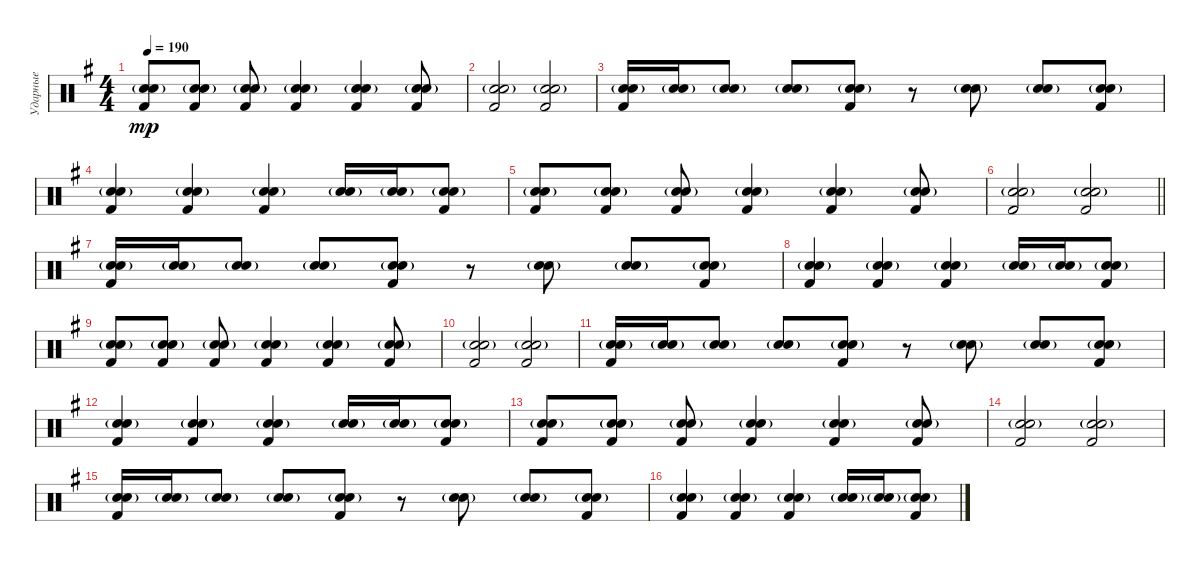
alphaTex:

\track ("Ударные" "Ударные") {instrument percussion}
\staff {score}
\articulation defaults
\ts (4 4)
\tempo 190
\clef neutral
\ks g
("Kick (hit) 2" "Snare (hit) 2"{g} "Electric Snare (hit)").8{dy mp} ("Kick (hit) 2" "Snare (hit) 2"{g} "Electric Snare (hit)").8 ("Kick (hit) 2" "Snare (hit) 2"{g} "Electric Snare (hit)").8 ("Kick (hit) 2" "Snare (hit) 2"{g} "Electric Snare (hit)").4 ("Kick (hit) 2" "Snare (hit) 2"{g} "Electric Snare (hit)").4 ("Kick (hit) 2" "Snare (hit) 2"{g} "Electric Snare (hit)").8 |
("Kick (hit) 2" "Snare (hit) 2"{g} "Electric Snare (hit)").2 ("Kick (hit) 2" "Snare (hit) 2"{g} "Electric Snare (hit)").2 |
("Kick (hit) 2" "Snare (hit) 2"{g} "Electric Snare (hit)").16 ("Snare (hit) 2"{g} "Electric Snare (hit)"{g}).16 ("Snare (hit) 2"{g} "Electric Snare (hit)"{g}).8 ("Snare (hit) 2"{g} "Electric Snare (hit)").8 ("Kick (hit) 2" "Snare (hit) 2"{g} "Electric Snare (hit)").8 r.8 ("Snare (hit) 2"{g} "Electric Snare (hit)").8 ("Snare (hit) 2"{g} "Electric Snare (hit)"{g}).8 ("Kick (hit) 2" "Snare (hit) 2"{g} "Electric Snare (hit)").8 |
("Kick (hit) 2" "Snare (hit) 2"{g} "Electric Snare (hit)").4 ("Kick (hit) 2" "Snare (hit) 2"{g} "Electric Snare (hit)").4 ("Kick (hit) 2" "Snare (hit) 2"{g} "Electric Snare (hit)").4 ("Snare (hit) 2"{g} "Electric Snare (hit)"{g}).16 ("Snare (hit) 2"{g} "Electric Snare (hit)"{g}).16 ("Kick (hit) 2" "Snare (hit) 2"{g} "Electric Snare (hit)").8 |
("Kick (hit) 2" "Snare (hit) 2"{g} "Electric Snare (hit)").8 ("Kick (hit) 2" "Snare (hit) 2"{g} "Electric Snare (hit)").8 ("Kick (hit) 2" "Snare (hit) 2"{g} "Electric Snare (hit)").8 ("Kick (hit) 2" "Snare (hit) 2"{g} "Electric Snare (hit)").4 ("Kick (hit) 2" "Snare (hit) 2"{g} "Electric Snare (hit)").4 ("Kick (hit) 2" "Snare (hit) 2"{g} "Electric Snare (hit)").8 |
\barLineRight lightlight
("Kick (hit) 2" "Snare (hit) 2"{g} "Electric Snare (hit)").2 ("Kick (hit) 2" "Snare (hit) 2"{g} "Electric Snare (hit)").2 |
("Kick (hit) 2" "Snare (hit) 2"{g} "Electric Snare (hit)").16 ("Snare (hit) 2"{g} "Electric Snare (hit)"{g}).16 ("Snare (hit) 2"{g} "Electric Snare (hit)"{g}).8 ("Snare (hit) 2"{g} "Electric Snare (hit)").8 ("Kick (hit) 2" "Snare (hit) 2"{g} "Electric Snare (hit)").8 r.8 ("Snare (hit) 2"{g} "Electric Snare (hit)").8 ("Snare (hit) 2"{g} "Electric Snare (hit)"{g}).8 ("Kick (hit) 2" "Snare (hit) 2"{g} "Electric Snare (hit)").8 |
("Kick (hit) 2" "Snare (hit) 2"{g} "Electric Snare (hit)").4 ("Kick (hit) 2" "Snare (hit) 2"{g} "Electric Snare (hit)").4 ("Kick (hit) 2" "Snare (hit) 2"{g} "Electric Snare (hit)").4 ("Snare (hit) 2"{g} "Electric Snare (hit)"{g}).16 ("Snare (hit) 2"{g} "Electric Snare (hit)"{g}).16 ("Kick (hit) 2" "Snare (hit) 2"{g} "Electric Snare (hit)").8 |
("Kick (hit) 2" "Snare (hit) 2"{g} "Electric Snare (hit)").8 ("Kick (hit) 2" "Snare (hit) 2"{g} "Electric Snare (hit)").8 ("Kick (hit) 2" "Snare (hit) 2"{g} "Electric Snare (hit)").8 ("Kick (hit) 2" "Snare (hit) 2"{g} "Electric Snare (hit)").4 ("Kick (hit) 2" "Snare (hit) 2"{g} "Electric Snare (hit)").4 ("Kick (hit) 2" "Snare (hit) 2"{g} "Electric Snare (hit)").8 |
("Kick (hit) 2" "Snare (hit) 2"{g} "Electric Snare (hit)").2 ("Kick (hit) 2" "Snare (hit) 2"{g} "Electric Snare (hit)").2 |
("Kick (hit) 2" "Snare (hit) 2"{g} "Electric Snare (hit)").16 ("Snare (hit) 2"{g} "Electric Snare (hit)"{g}).16 ("Snare (hit) 2"{g} "Electric Snare (hit)"{g}).8 ("Snare (hit) 2"{g} "Electric Snare (hit)").8 ("Kick (hit) 2" "Snare (hit) 2"{g} "Electric Snare (hit)").8 r.8 ("Snare (hit) 2"{g} "Electric Snare (hit)").8 ("Snare (hit) 2"{g} "Electric Snare (hit)"{g}).8 ("Kick (hit) 2" "Snare (hit) 2"{g} "Electric Snare (hit)").8 |
("Kick (hit) 2" "Snare (hit) 2"{g} "Electric Snare (hit)").4 ("Kick (hit) 2" "Snare (hit) 2"{g} "Electric Snare (hit)").4 ("Kick (hit) 2" "Snare (hit) 2"{g} "Electric Snare (hit)").4 ("Snare (hit) 2"{g} "Electric Snare (hit)"{g}).16 ("Snare (hit) 2"{g} "Electric Snare (hit)"{g}).16 ("Kick (hit) 2" "Snare (hit) 2"{g} "Electric Snare (hit)").8 |
("Kick (hit) 2" "Snare (hit) 2"{g} "Electric Snare (hit)").8 ("Kick (hit) 2" "Snare (hit) 2"{g} "Electric Snare (hit)").8 ("Kick (hit) 2" "Snare (hit) 2"{g} "Electric Snare (hit)").8 ("Kick (hit) 2" "Snare (hit) 2"{g} "Electric Snare (hit)").4 ("Kick (hit) 2" "Snare (hit) 2"{g} "Electric Snare (hit)").4 ("Kick (hit) 2" "Snare (hit) 2"{g} "Electric Snare (hit)").8 |
("Kick (hit) 2" "Snare (hit) 2"{g} "Electric Snare (hit)").2 ("Kick (hit) 2" "Snare (hit) 2"{g} "Electric Snare (hit)").2 |
("Kick (hit) 2" "Snare (hit) 2"{g} "Electric Snare (hit)").16 ("Snare (hit) 2"{g} "Electric Snare (hit)"{g}).16 ("Snare (hit) 2"{g} "Electric Snare (hit)"{g}).8 ("Snare (hit) 2"{g} "Electric Snare (hit)").8 ("Kick (hit) 2" "Snare (hit) 2"{g} "Electric Snare (hit)").8 r.8 ("Snare (hit) 2"{g} "Electric Snare (hit)").8 ("Snare (hit) 2"{g} "Electric Snare (hit)"{g}).8 ("Kick (hit) 2" "Snare (hit) 2"{g} "Electric Snare (hit)").8 |
("Kick (hit) 2" "Snare (hit) 2"{g} "Electric Snare (hit)").4 ("Kick (hit) 2" "Snare (hit) 2"{g} "Electric Snare (hit)").4 ("Kick (hit) 2" "Snare (hit) 2"{g} "Electric Snare (hit)").4 ("Snare (hit) 2"{g} "Electric Snare (hit)"{g}).16 ("Snare (hit) 2"{g} "Electric Snare (hit)"{g}).16 ("Kick (hit) 2" "Snare (hit) 2"{g} "Electric Snare (hit)").8
